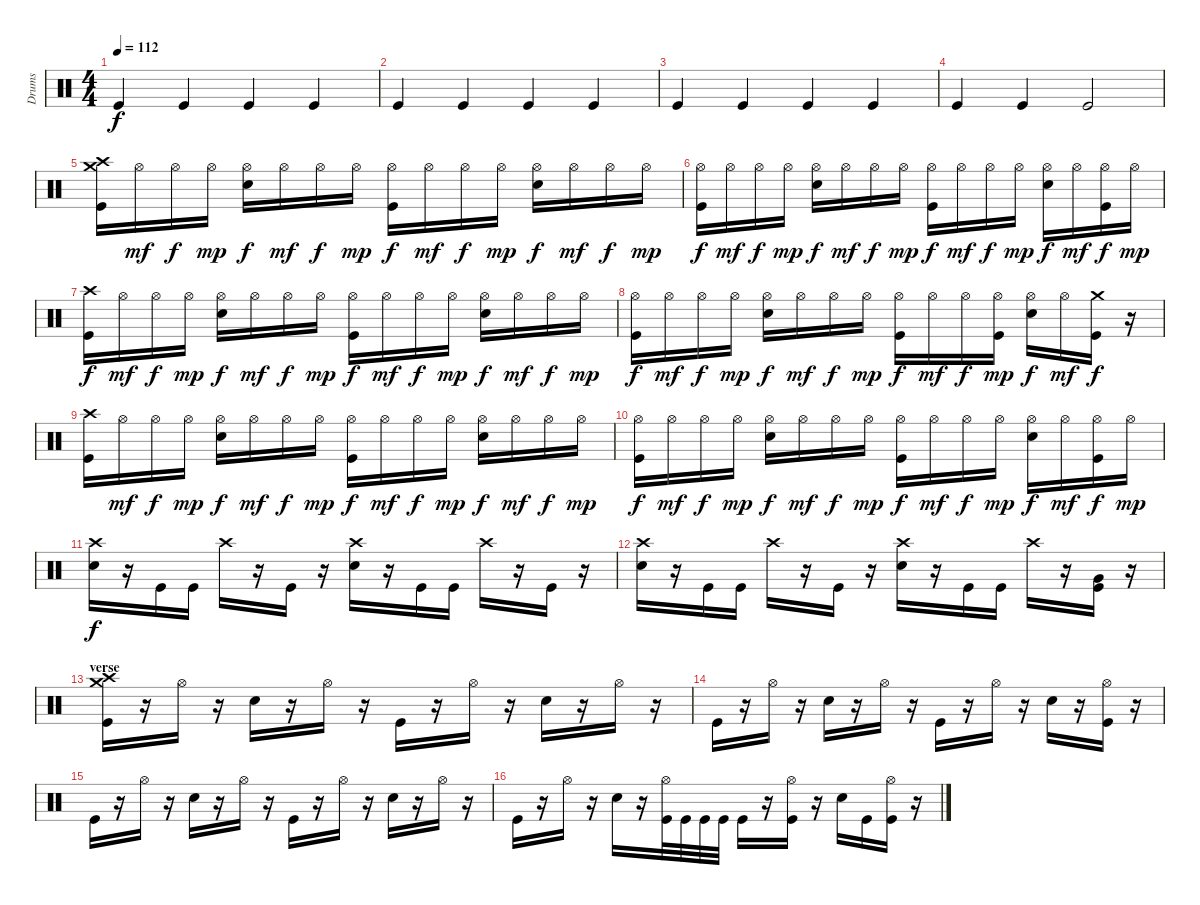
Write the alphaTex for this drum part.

\track ("Drums" "Drums") {instrument percussion}
\staff {score}
\articulation defaults
\ts (4 4)
\tempo 112
\clef neutral
\ks c "Kick (hit)".4{dy f} "Kick (hit)".4 "Kick (hit)".4 "Kick (hit)".4
|
"Kick (hit)".4 "Kick (hit)".4 "Kick (hit)".4 "Kick (hit)".4 |
"Kick (hit)".4 "Kick (hit)".4 "Kick (hit)".4 "Kick (hit)".4 |
"Kick (hit)".4 "Kick (hit)".4 "Kick (hit)".2 |
\section ("" "")
("Crash high (hit)" "Crash medium (hit)" "Kick (hit)").16 "Hi-Hat (open)".16{dy mf} "Hi-Hat (open)".16{dy f} "Hi-Hat (open)".16{dy mp} ("Hi-Hat (open)" "Snare (hit) 2").16{dy f} "Hi-Hat (open)".16{dy mf} "Hi-Hat (open)".16{dy f} "Hi-Hat (open)".16{dy mp} ("Hi-Hat (open)" "Kick (hit)").16{dy f} "Hi-Hat (open)".16{dy mf} "Hi-Hat (open)".16{dy f} "Hi-Hat (open)".16{dy mp} ("Hi-Hat (open)" "Snare (hit) 2").16{dy f} "Hi-Hat (open)".16{dy mf} "Hi-Hat (open)".16{dy f} "Hi-Hat (open)".16{dy mp} |
("Hi-Hat (open)" "Kick (hit)").16{dy f} "Hi-Hat (open)".16{dy mf} "Hi-Hat (open)".16{dy f} "Hi-Hat (open)".16{dy mp} ("Hi-Hat (open)" "Snare (hit) 2").16{dy f} "Hi-Hat (open)".16{dy mf} "Hi-Hat (open)".16{dy f} "Hi-Hat (open)".16{dy mp} ("Hi-Hat (open)" "Kick (hit)").16{dy f} "Hi-Hat (open)".16{dy mf} "Hi-Hat (open)".16{dy f} "Hi-Hat (open)".16{dy mp} ("Hi-Hat (open)" "Snare (hit) 2").16{dy f} "Hi-Hat (open)".16{dy mf} ("Hi-Hat (open)" "Kick (hit)").16{dy f} "Hi-Hat (open)".16{dy mp} |
("Crash high (hit)" "Kick (hit)").16{dy f} "Hi-Hat (open)".16{dy mf} "Hi-Hat (open)".16{dy f} "Hi-Hat (open)".16{dy mp} ("Hi-Hat (open)" "Snare (hit) 2").16{dy f} "Hi-Hat (open)".16{dy mf} "Hi-Hat (open)".16{dy f} "Hi-Hat (open)".16{dy mp} ("Hi-Hat (open)" "Kick (hit)").16{dy f} "Hi-Hat (open)".16{dy mf} "Hi-Hat (open)".16{dy f} "Hi-Hat (open)".16{dy mp} ("Hi-Hat (open)" "Snare (hit) 2").16{dy f} "Hi-Hat (open)".16{dy mf} "Hi-Hat (open)".16{dy f} "Hi-Hat (open)".16{dy mp} |
("Hi-Hat (open)" "Kick (hit)").16{dy f} "Hi-Hat (open)".16{dy mf} "Hi-Hat (open)".16{dy f} "Hi-Hat (open)".16{dy mp} ("Hi-Hat (open)" "Snare (hit) 2").16{dy f} "Hi-Hat (open)".16{dy mf} "Hi-Hat (open)".16{dy f} "Hi-Hat (open)".16{dy mp} ("Hi-Hat (open)" "Kick (hit)").16{dy f} "Hi-Hat (open)".16{dy mf} "Hi-Hat (open)".16{dy f} ("Hi-Hat (open)" "Kick (hit)").16{dy mp} ("Hi-Hat (open)" "Snare (hit) 2").16{dy f} "Hi-Hat (open)".16{dy mf} ("Crash medium (hit)" "Kick (hit)").16{dy f} r.16 |
("Crash high (hit)" "Kick (hit)").16 "Hi-Hat (open)".16{dy mf} "Hi-Hat (open)".16{dy f} "Hi-Hat (open)".16{dy mp} ("Hi-Hat (open)" "Snare (hit) 2").16{dy f} "Hi-Hat (open)".16{dy mf} "Hi-Hat (open)".16{dy f} "Hi-Hat (open)".16{dy mp} ("Hi-Hat (open)" "Kick (hit)").16{dy f} "Hi-Hat (open)".16{dy mf} "Hi-Hat (open)".16{dy f} "Hi-Hat (open)".16{dy mp} ("Hi-Hat (open)" "Snare (hit) 2").16{dy f} "Hi-Hat (open)".16{dy mf} "Hi-Hat (open)".16{dy f} "Hi-Hat (open)".16{dy mp} |
("Hi-Hat (open)" "Kick (hit)").16{dy f} "Hi-Hat (open)".16{dy mf} "Hi-Hat (open)".16{dy f} "Hi-Hat (open)".16{dy mp} ("Hi-Hat (open)" "Snare (hit) 2").16{dy f} "Hi-Hat (open)".16{dy mf} "Hi-Hat (open)".16{dy f} "Hi-Hat (open)".16{dy mp} ("Hi-Hat (open)" "Kick (hit)").16{dy f} "Hi-Hat (open)".16{dy mf} "Hi-Hat (open)".16{dy f} "Hi-Hat (open)".16{dy mp} ("Hi-Hat (open)" "Snare (hit) 2").16{dy f} "Hi-Hat (open)".16{dy mf} ("Hi-Hat (open)" "Kick (hit)").16{dy f} "Hi-Hat (open)".16{dy mp} |
("Crash high (hit)" "Snare (hit) 2").16{dy f} r.16 "Kick (hit)".16 "Kick (hit)".16 "Crash high (hit)".16 r.16 "Kick (hit)".16 r.16 ("Crash high (hit)" "Snare (hit) 2").16 r.16 "Kick (hit)".16 "Kick (hit)".16 "Crash high (hit)".16 r.16 "Kick (hit)".16 r.16 |
("Crash high (hit)" "Snare (hit) 2").16 r.16 "Kick (hit)".16 "Kick (hit)".16 "Crash high (hit)".16 r.16 "Kick (hit)".16 r.16 ("Crash high (hit)" "Snare (hit) 2").16 r.16 "Kick (hit)".16 "Kick (hit)".16 "Crash high (hit)".16 r.16 ("Very Low Tom (hit)" "Kick (hit)").16 r.16 |
\section ("" "verse")
("Crash high (hit)" "Crash medium (hit)" "Kick (hit)").16 r.16 "Hi-Hat (open)".16 r.16 "Snare (hit) 2".16 r.16 "Hi-Hat (open)".16 r.16 "Kick (hit)".16 r.16 "Hi-Hat (open)".16 r.16 "Snare (hit) 2".16 r.16 "Hi-Hat (open)".16 r.16 |
"Kick (hit)".16 r.16 "Hi-Hat (open)".16 r.16 "Snare (hit) 2".16 r.16 "Hi-Hat (open)".16 r.16 "Kick (hit)".16 r.16 "Hi-Hat (open)".16 r.16 "Snare (hit) 2".16 r.16 ("Hi-Hat (open)" "Kick (hit)").16 r.16 |
"Kick (hit)".16 r.16 "Hi-Hat (open)".16 r.16 "Snare (hit) 2".16 r.16 "Hi-Hat (open)".16 r.16 "Kick (hit)".16 r.16 "Hi-Hat (open)".16 r.16 "Snare (hit) 2".16 r.16 "Hi-Hat (open)".16 r.16 |
"Kick (hit)".16 r.16 "Hi-Hat (open)".16 r.16 "Snare (hit) 2".16 r.16 ("Hi-Hat (open)" "Kick (hit)").32 "Kick (hit)".32 "Kick (hit)".32 "Kick (hit)".32 "Kick (hit)".16 r.16 ("Hi-Hat (open)" "Kick (hit)").16 r.16 "Snare (hit) 2".16 "Kick (hit)".16 ("Hi-Hat (open)" "Kick (hit)").16 r.16
